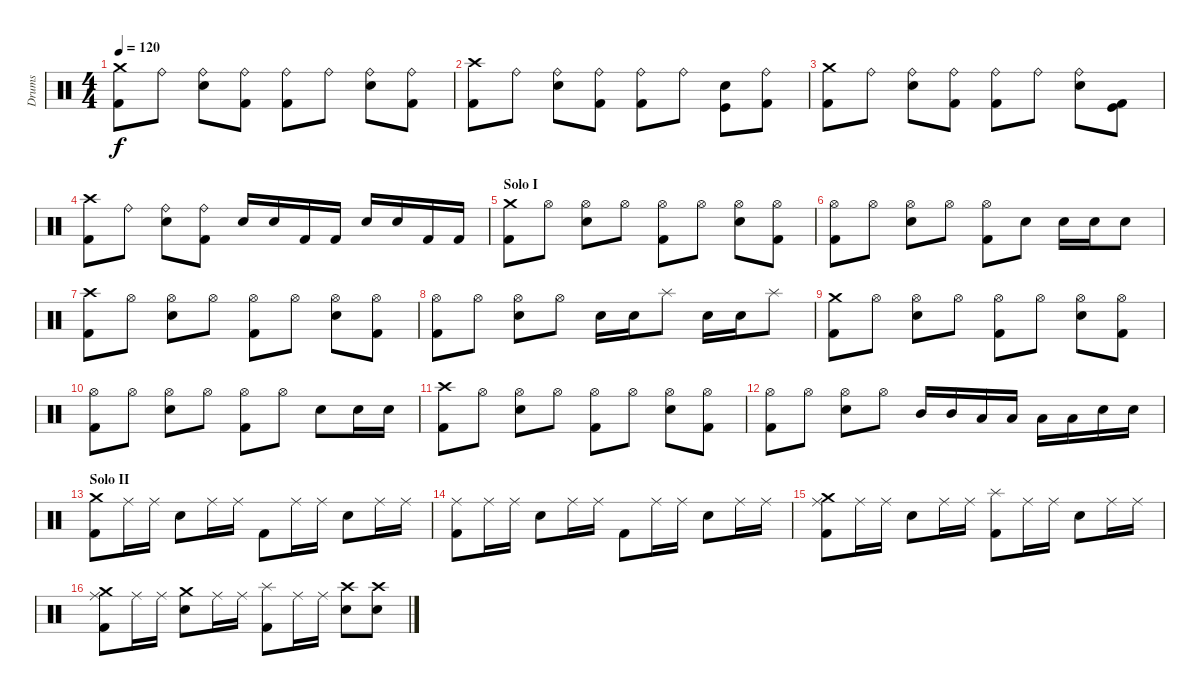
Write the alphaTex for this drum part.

\track ("Drums" "Drums") {instrument percussion}
\staff {score}
\articulation defaults
\ts (4 4)
\tempo 120
\clef neutral
\ks c
("Kick (hit) 2" "Crash medium (hit)").8{dy f} "Ride (bell)".8 ("Snare (hit) 2" "Ride (bell)").8 ("Kick (hit) 2" "Ride (bell)").8 ("Kick (hit) 2" "Ride (bell)").8 "Ride (bell)".8 ("Snare (hit) 2" "Ride (bell)").8 ("Kick (hit) 2" "Ride (bell)").8 |
("Kick (hit) 2" "Crash high (hit)").8 "Ride (bell)".8 ("Snare (hit) 2" "Ride (bell)").8 ("Kick (hit) 2" "Ride (bell)").8 ("Kick (hit) 2" "Ride (bell)").8 "Ride (bell)".8 ("Snare (hit) 2" "Kick (hit)").8 ("Kick (hit) 2" "Ride (bell)").8 |
("Kick (hit) 2" "Crash medium (hit)").8 "Ride (bell)".8 ("Snare (hit) 2" "Ride (bell)").8 ("Kick (hit) 2" "Ride (bell)").8 ("Kick (hit) 2" "Ride (bell)").8 "Ride (bell)".8 ("Snare (hit) 2" "Ride (bell)").8 ("Kick (hit) 2" "Kick (hit)").8 |
("Kick (hit) 2" "Crash high (hit)").8 "Ride (bell)".8 ("Snare (hit) 2" "Ride (bell)").8 ("Kick (hit) 2" "Ride (bell)").8 "Snare (hit) 2".16 "Snare (hit) 2".16 "Kick (hit) 2".16 "Kick (hit) 2".16 "Snare (hit) 2".16 "Snare (hit) 2".16 "Kick (hit) 2".16 "Kick (hit) 2".16 |
\section ("" "Solo I")
("Kick (hit) 2" "Crash medium (hit)").8 "Hi-Hat (open)".8 ("Snare (hit) 2" "Hi-Hat (open)").8 "Hi-Hat (open)".8 ("Kick (hit) 2" "Hi-Hat (open)").8 "Hi-Hat (open)".8 ("Snare (hit) 2" "Hi-Hat (open)").8 ("Kick (hit) 2" "Hi-Hat (open)").8 |
("Kick (hit) 2" "Hi-Hat (open)").8 "Hi-Hat (open)".8 ("Snare (hit) 2" "Hi-Hat (open)").8 "Hi-Hat (open)".8 ("Kick (hit) 2" "Hi-Hat (open)").8 "Snare (hit) 2".8 "Snare (hit) 2".16 "Snare (hit) 2".16 "Snare (hit) 2".8 |
("Kick (hit) 2" "Crash high (hit)").8 "Hi-Hat (open)".8 ("Snare (hit) 2" "Hi-Hat (open)").8 "Hi-Hat (open)".8 ("Kick (hit) 2" "Hi-Hat (open)").8 "Hi-Hat (open)".8 ("Snare (hit) 2" "Hi-Hat (open)").8 ("Kick (hit) 2" "Hi-Hat (open)").8 |
("Kick (hit) 2" "Hi-Hat (open)").8 "Hi-Hat (open)".8 ("Snare (hit) 2" "Hi-Hat (open)").8 "Hi-Hat (open)".8 "Snare (hit) 2".16 "Snare (hit) 2".16 "Splash (hit)".8 "Snare (hit) 2".16 "Snare (hit) 2".16 "Splash (hit)".8 |
("Kick (hit) 2" "Crash medium (hit)").8 "Hi-Hat (open)".8 ("Snare (hit) 2" "Hi-Hat (open)").8 "Hi-Hat (open)".8 ("Kick (hit) 2" "Hi-Hat (open)").8 "Hi-Hat (open)".8 ("Snare (hit) 2" "Hi-Hat (open)").8 ("Kick (hit) 2" "Hi-Hat (open)").8 |
("Kick (hit) 2" "Hi-Hat (open)").8 "Hi-Hat (open)".8 ("Snare (hit) 2" "Hi-Hat (open)").8 "Hi-Hat (open)".8 ("Kick (hit) 2" "Hi-Hat (open)").8 "Hi-Hat (open)".8 "Snare (hit) 2".8 "Snare (hit) 2".16 "Snare (hit) 2".16 |
("Kick (hit) 2" "Crash high (hit)").8 "Hi-Hat (open)".8 ("Snare (hit) 2" "Hi-Hat (open)").8 "Hi-Hat (open)".8 ("Kick (hit) 2" "Hi-Hat (open)").8 "Hi-Hat (open)".8 ("Snare (hit) 2" "Hi-Hat (open)").8 ("Kick (hit) 2" "Hi-Hat (open)").8 |
("Kick (hit) 2" "Hi-Hat (open)").8 "Hi-Hat (open)".8 ("Snare (hit) 2" "Hi-Hat (open)").8 "Hi-Hat (open)".8 "Mid Tom (hit)".16 "Mid Tom (hit)".16 "Low Floor Tom (hit)".16 "Low Floor Tom (hit)".16 "Low Tom (hit)".16 "Low Tom (hit)".16 "Snare (hit) 2".16 "Snare (hit) 2".16 |
\section ("" "Solo II")
("Kick (hit) 2" "Crash medium (hit)").8 "Ride (middle)".16 "Ride (middle)".16 "Snare (hit) 2".8 "Ride (middle)".16 "Ride (middle)".16 "Kick (hit) 2".8 "Ride (middle)".16 "Ride (middle)".16 "Snare (hit) 2".8 "Ride (middle)".16 "Ride (middle)".16 |
("Kick (hit) 2" "Ride (middle)").8 "Ride (middle)".16 "Ride (middle)".16 "Snare (hit) 2".8 "Ride (middle)".16 "Ride (middle)".16 "Kick (hit) 2".8 "Ride (middle)".16 "Ride (middle)".16 "Snare (hit) 2".8 "Ride (middle)".16 "Ride (middle)".16 |
("Kick (hit) 2" "Ride (middle)" "Crash medium (hit)").8 "Ride (middle)".16 "Ride (middle)".16 "Snare (hit) 2".8 "Ride (middle)".16 "Ride (middle)".16 ("Kick (hit) 2" "Splash (hit)").8 "Ride (middle)".16 "Ride (middle)".16 "Snare (hit) 2".8 "Ride (middle)".16 "Ride (middle)".16 |
("Kick (hit) 2" "Ride (middle)" "Crash medium (hit)").8 "Ride (middle)".16 "Ride (middle)".16 ("Snare (hit) 2" "Crash medium (hit)").8 "Ride (middle)".16 "Ride (middle)".16 ("Kick (hit) 2" "Splash (hit)").8 "Ride (middle)".16 "Ride (middle)".16 ("Snare (hit) 2" "Crash high (hit)").8 ("Snare (hit) 2" "Crash high (hit)").8
